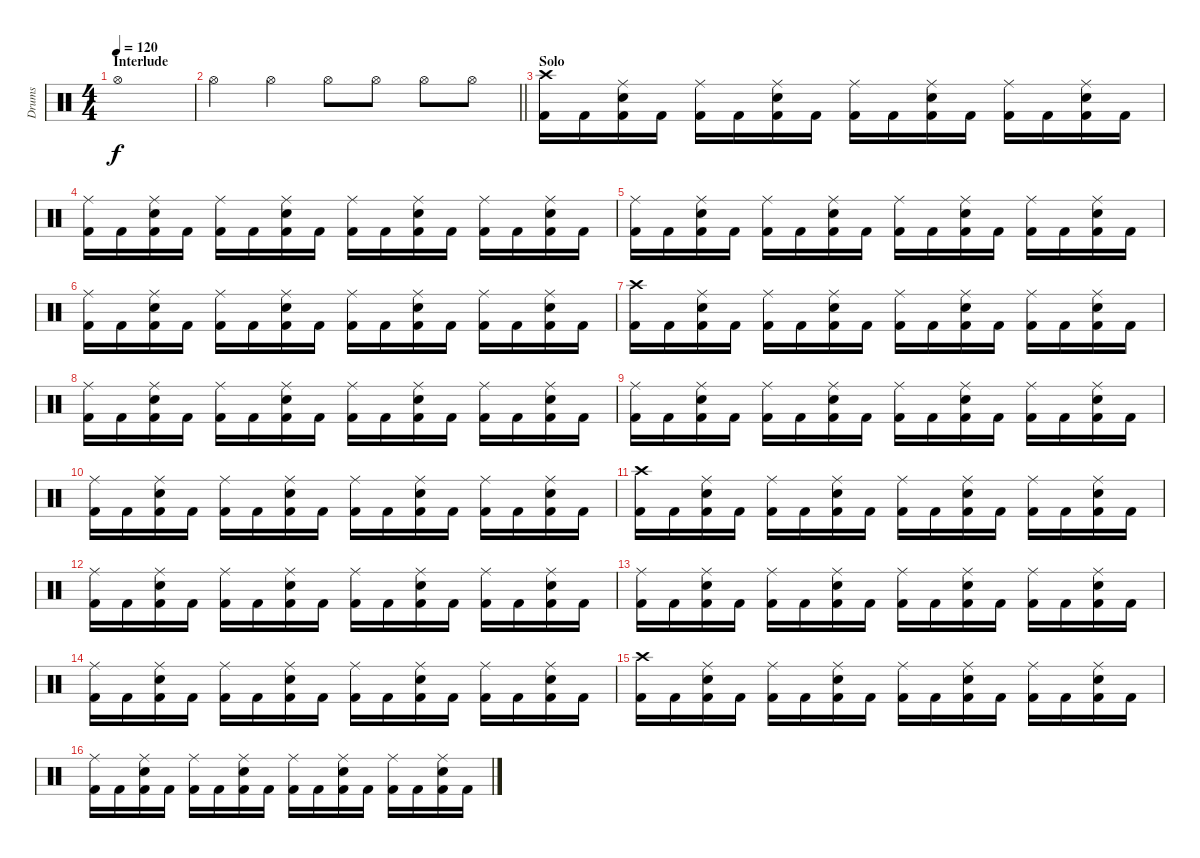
\track ("Drums" "Drums") {instrument percussion}
\staff {score}
\articulation defaults
\ts (4 4)
\section ("" "Interlude")
\tempo 120
\clef neutral
\ks c "Hi-Hat (open)".1{dy f}
|
\barLineRight lightlight "Hi-Hat (open)".4 "Hi-Hat (open)".4 "Hi-Hat (open)".8 "Hi-Hat (open)".8 "Hi-Hat (open)".8 "Hi-Hat (open)".8
|
\section ("" "Solo")
("Crash high (hit)" "Kick (hit) 2").16 "Kick (hit) 2".16 ("Ride (middle)" "Snare (hit) 2" "Kick (hit) 2").16 "Kick (hit) 2".16 ("Ride (middle)" "Kick (hit) 2").16 "Kick (hit) 2".16 ("Ride (middle)" "Snare (hit) 2" "Kick (hit) 2").16 "Kick (hit) 2".16 ("Ride (middle)" "Kick (hit) 2").16 "Kick (hit) 2".16 ("Ride (middle)" "Snare (hit) 2" "Kick (hit) 2").16 "Kick (hit) 2".16 ("Ride (middle)" "Kick (hit) 2").16 "Kick (hit) 2".16 ("Ride (middle)" "Snare (hit) 2" "Kick (hit) 2").16 "Kick (hit) 2".16 |
("Ride (middle)" "Kick (hit) 2").16 "Kick (hit) 2".16 ("Ride (middle)" "Snare (hit) 2" "Kick (hit) 2").16 "Kick (hit) 2".16 ("Ride (middle)" "Kick (hit) 2").16 "Kick (hit) 2".16 ("Ride (middle)" "Snare (hit) 2" "Kick (hit) 2").16 "Kick (hit) 2".16 ("Ride (middle)" "Kick (hit) 2").16 "Kick (hit) 2".16 ("Ride (middle)" "Snare (hit) 2" "Kick (hit) 2").16 "Kick (hit) 2".16 ("Ride (middle)" "Kick (hit) 2").16 "Kick (hit) 2".16 ("Ride (middle)" "Snare (hit) 2" "Kick (hit) 2").16 "Kick (hit) 2".16 |
("Ride (middle)" "Kick (hit) 2").16 "Kick (hit) 2".16 ("Ride (middle)" "Snare (hit) 2" "Kick (hit) 2").16 "Kick (hit) 2".16 ("Ride (middle)" "Kick (hit) 2").16 "Kick (hit) 2".16 ("Ride (middle)" "Snare (hit) 2" "Kick (hit) 2").16 "Kick (hit) 2".16 ("Ride (middle)" "Kick (hit) 2").16 "Kick (hit) 2".16 ("Ride (middle)" "Snare (hit) 2" "Kick (hit) 2").16 "Kick (hit) 2".16 ("Ride (middle)" "Kick (hit) 2").16 "Kick (hit) 2".16 ("Ride (middle)" "Snare (hit) 2" "Kick (hit) 2").16 "Kick (hit) 2".16 |
("Ride (middle)" "Kick (hit) 2").16 "Kick (hit) 2".16 ("Ride (middle)" "Snare (hit) 2" "Kick (hit) 2").16 "Kick (hit) 2".16 ("Ride (middle)" "Kick (hit) 2").16 "Kick (hit) 2".16 ("Ride (middle)" "Snare (hit) 2" "Kick (hit) 2").16 "Kick (hit) 2".16 ("Ride (middle)" "Kick (hit) 2").16 "Kick (hit) 2".16 ("Ride (middle)" "Snare (hit) 2" "Kick (hit) 2").16 "Kick (hit) 2".16 ("Ride (middle)" "Kick (hit) 2").16 "Kick (hit) 2".16 ("Ride (middle)" "Snare (hit) 2" "Kick (hit) 2").16 "Kick (hit) 2".16 |
("Crash high (hit)" "Kick (hit) 2").16 "Kick (hit) 2".16 ("Ride (middle)" "Snare (hit) 2" "Kick (hit) 2").16 "Kick (hit) 2".16 ("Ride (middle)" "Kick (hit) 2").16 "Kick (hit) 2".16 ("Ride (middle)" "Snare (hit) 2" "Kick (hit) 2").16 "Kick (hit) 2".16 ("Ride (middle)" "Kick (hit) 2").16 "Kick (hit) 2".16 ("Ride (middle)" "Snare (hit) 2" "Kick (hit) 2").16 "Kick (hit) 2".16 ("Ride (middle)" "Kick (hit) 2").16 "Kick (hit) 2".16 ("Ride (middle)" "Snare (hit) 2" "Kick (hit) 2").16 "Kick (hit) 2".16 |
("Ride (middle)" "Kick (hit) 2").16 "Kick (hit) 2".16 ("Ride (middle)" "Snare (hit) 2" "Kick (hit) 2").16 "Kick (hit) 2".16 ("Ride (middle)" "Kick (hit) 2").16 "Kick (hit) 2".16 ("Ride (middle)" "Snare (hit) 2" "Kick (hit) 2").16 "Kick (hit) 2".16 ("Ride (middle)" "Kick (hit) 2").16 "Kick (hit) 2".16 ("Ride (middle)" "Snare (hit) 2" "Kick (hit) 2").16 "Kick (hit) 2".16 ("Ride (middle)" "Kick (hit) 2").16 "Kick (hit) 2".16 ("Ride (middle)" "Snare (hit) 2" "Kick (hit) 2").16 "Kick (hit) 2".16 |
("Ride (middle)" "Kick (hit) 2").16 "Kick (hit) 2".16 ("Ride (middle)" "Snare (hit) 2" "Kick (hit) 2").16 "Kick (hit) 2".16 ("Ride (middle)" "Kick (hit) 2").16 "Kick (hit) 2".16 ("Ride (middle)" "Snare (hit) 2" "Kick (hit) 2").16 "Kick (hit) 2".16 ("Ride (middle)" "Kick (hit) 2").16 "Kick (hit) 2".16 ("Ride (middle)" "Snare (hit) 2" "Kick (hit) 2").16 "Kick (hit) 2".16 ("Ride (middle)" "Kick (hit) 2").16 "Kick (hit) 2".16 ("Ride (middle)" "Snare (hit) 2" "Kick (hit) 2").16 "Kick (hit) 2".16 |
("Ride (middle)" "Kick (hit) 2").16 "Kick (hit) 2".16 ("Ride (middle)" "Snare (hit) 2" "Kick (hit) 2").16 "Kick (hit) 2".16 ("Ride (middle)" "Kick (hit) 2").16 "Kick (hit) 2".16 ("Ride (middle)" "Snare (hit) 2" "Kick (hit) 2").16 "Kick (hit) 2".16 ("Ride (middle)" "Kick (hit) 2").16 "Kick (hit) 2".16 ("Ride (middle)" "Snare (hit) 2" "Kick (hit) 2").16 "Kick (hit) 2".16 ("Ride (middle)" "Kick (hit) 2").16 "Kick (hit) 2".16 ("Ride (middle)" "Snare (hit) 2" "Kick (hit) 2").16 "Kick (hit) 2".16 |
("Crash high (hit)" "Kick (hit) 2").16 "Kick (hit) 2".16 ("Ride (middle)" "Snare (hit) 2" "Kick (hit) 2").16 "Kick (hit) 2".16 ("Ride (middle)" "Kick (hit) 2").16 "Kick (hit) 2".16 ("Ride (middle)" "Snare (hit) 2" "Kick (hit) 2").16 "Kick (hit) 2".16 ("Ride (middle)" "Kick (hit) 2").16 "Kick (hit) 2".16 ("Ride (middle)" "Snare (hit) 2" "Kick (hit) 2").16 "Kick (hit) 2".16 ("Ride (middle)" "Kick (hit) 2").16 "Kick (hit) 2".16 ("Ride (middle)" "Snare (hit) 2" "Kick (hit) 2").16 "Kick (hit) 2".16 |
("Ride (middle)" "Kick (hit) 2").16 "Kick (hit) 2".16 ("Ride (middle)" "Snare (hit) 2" "Kick (hit) 2").16 "Kick (hit) 2".16 ("Ride (middle)" "Kick (hit) 2").16 "Kick (hit) 2".16 ("Ride (middle)" "Snare (hit) 2" "Kick (hit) 2").16 "Kick (hit) 2".16 ("Ride (middle)" "Kick (hit) 2").16 "Kick (hit) 2".16 ("Ride (middle)" "Snare (hit) 2" "Kick (hit) 2").16 "Kick (hit) 2".16 ("Ride (middle)" "Kick (hit) 2").16 "Kick (hit) 2".16 ("Ride (middle)" "Snare (hit) 2" "Kick (hit) 2").16 "Kick (hit) 2".16 |
("Ride (middle)" "Kick (hit) 2").16 "Kick (hit) 2".16 ("Ride (middle)" "Snare (hit) 2" "Kick (hit) 2").16 "Kick (hit) 2".16 ("Ride (middle)" "Kick (hit) 2").16 "Kick (hit) 2".16 ("Ride (middle)" "Snare (hit) 2" "Kick (hit) 2").16 "Kick (hit) 2".16 ("Ride (middle)" "Kick (hit) 2").16 "Kick (hit) 2".16 ("Ride (middle)" "Snare (hit) 2" "Kick (hit) 2").16 "Kick (hit) 2".16 ("Ride (middle)" "Kick (hit) 2").16 "Kick (hit) 2".16 ("Ride (middle)" "Snare (hit) 2" "Kick (hit) 2").16 "Kick (hit) 2".16 |
("Ride (middle)" "Kick (hit) 2").16 "Kick (hit) 2".16 ("Ride (middle)" "Snare (hit) 2" "Kick (hit) 2").16 "Kick (hit) 2".16 ("Ride (middle)" "Kick (hit) 2").16 "Kick (hit) 2".16 ("Ride (middle)" "Snare (hit) 2" "Kick (hit) 2").16 "Kick (hit) 2".16 ("Ride (middle)" "Kick (hit) 2").16 "Kick (hit) 2".16 ("Ride (middle)" "Snare (hit) 2" "Kick (hit) 2").16 "Kick (hit) 2".16 ("Ride (middle)" "Kick (hit) 2").16 "Kick (hit) 2".16 ("Ride (middle)" "Snare (hit) 2" "Kick (hit) 2").16 "Kick (hit) 2".16 |
("Crash high (hit)" "Kick (hit) 2").16 "Kick (hit) 2".16 ("Ride (middle)" "Snare (hit) 2" "Kick (hit) 2").16 "Kick (hit) 2".16 ("Ride (middle)" "Kick (hit) 2").16 "Kick (hit) 2".16 ("Ride (middle)" "Snare (hit) 2" "Kick (hit) 2").16 "Kick (hit) 2".16 ("Ride (middle)" "Kick (hit) 2").16 "Kick (hit) 2".16 ("Ride (middle)" "Snare (hit) 2" "Kick (hit) 2").16 "Kick (hit) 2".16 ("Ride (middle)" "Kick (hit) 2").16 "Kick (hit) 2".16 ("Ride (middle)" "Snare (hit) 2" "Kick (hit) 2").16 "Kick (hit) 2".16 |
("Ride (middle)" "Kick (hit) 2").16 "Kick (hit) 2".16 ("Ride (middle)" "Snare (hit) 2" "Kick (hit) 2").16 "Kick (hit) 2".16 ("Ride (middle)" "Kick (hit) 2").16 "Kick (hit) 2".16 ("Ride (middle)" "Snare (hit) 2" "Kick (hit) 2").16 "Kick (hit) 2".16 ("Ride (middle)" "Kick (hit) 2").16 "Kick (hit) 2".16 ("Ride (middle)" "Snare (hit) 2" "Kick (hit) 2").16 "Kick (hit) 2".16 ("Ride (middle)" "Kick (hit) 2").16 "Kick (hit) 2".16 ("Ride (middle)" "Snare (hit) 2" "Kick (hit) 2").16 "Kick (hit) 2".16
